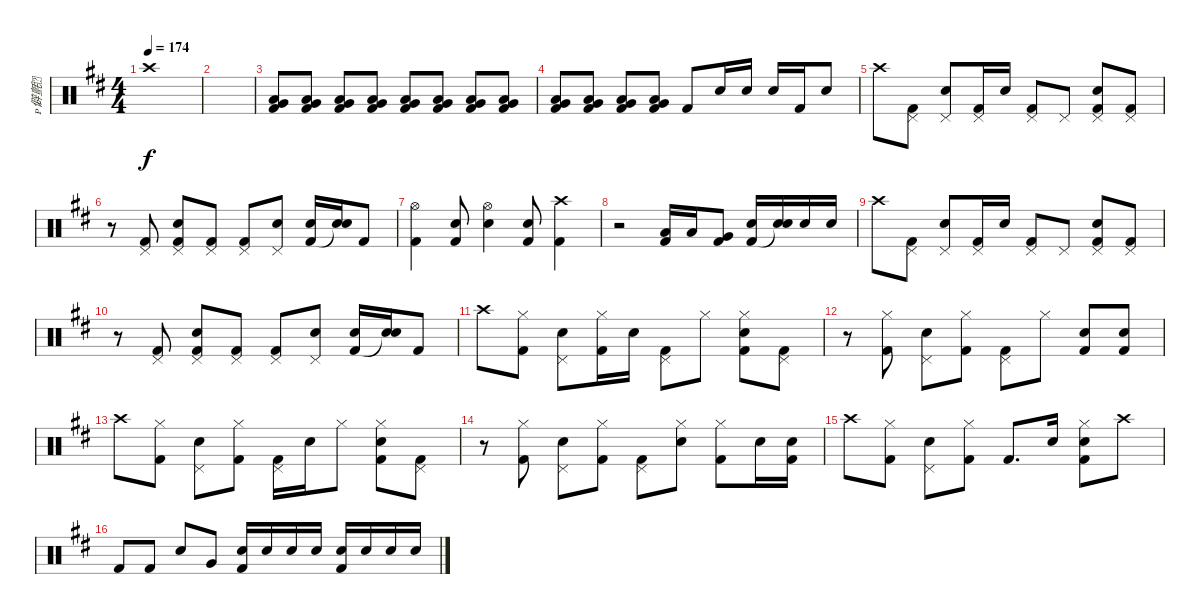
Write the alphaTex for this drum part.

\track ("僻氈" "僻氈") {instrument percussion}
\staff {score}
\articulation defaults
\ts (4 4)
\tempo 174
\clef neutral
\ks d "Crash high (hit)".1{dy f}
|
|
("Low Tom (hit)" "Very Low Tom (hit)" "Kick (hit) 2").8{volume 7} ("Low Tom (hit)" "Very Low Tom (hit)" "Kick (hit) 2").8 ("Low Tom (hit)" "Very Low Tom (hit)" "Kick (hit) 2").8{volume 10} ("Low Tom (hit)" "Very Low Tom (hit)" "Kick (hit) 2").8 ("Low Tom (hit)" "Very Low Tom (hit)" "Kick (hit) 2").8{volume 12} ("Low Tom (hit)" "Very Low Tom (hit)" "Kick (hit) 2").8 ("Low Tom (hit)" "Very Low Tom (hit)" "Kick (hit) 2").8{volume 14} ("Low Tom (hit)" "Very Low Tom (hit)" "Kick (hit) 2").8 |
("Low Tom (hit)" "Very Low Tom (hit)" "Kick (hit) 2").8{volume 16} ("Low Tom (hit)" "Very Low Tom (hit)" "Kick (hit) 2").8 ("Low Tom (hit)" "Very Low Tom (hit)" "Kick (hit) 2").8 ("Low Tom (hit)" "Very Low Tom (hit)" "Kick (hit) 2").8 "Kick (hit) 2".8 "Electric Snare (hit)".16 "Electric Snare (hit)".16 "Electric Snare (hit)".16 "Kick (hit) 2".16 "Electric Snare (hit)".8 |
"Crash high (hit)".8 ("Pedal Hi-Hat (hit)" "Kick (hit) 2").8 ("Pedal Hi-Hat (hit)" "Electric Snare (hit)").8 ("Pedal Hi-Hat (hit)" "Kick (hit) 2").16 "Electric Snare (hit)".16 ("Pedal Hi-Hat (hit)" "Kick (hit) 2").8 "Pedal Hi-Hat (hit)".8 ("Pedal Hi-Hat (hit)" "Electric Snare (hit)" "Kick (hit) 2").8 ("Pedal Hi-Hat (hit)" "Kick (hit) 2").8 |
r.8 ("Pedal Hi-Hat (hit)" "Kick (hit) 2").8 ("Pedal Hi-Hat (hit)" "Electric Snare (hit)" "Kick (hit) 2").8 ("Pedal Hi-Hat (hit)" "Kick (hit) 2").8 ("Pedal Hi-Hat (hit)" "Kick (hit) 2").8 ("Pedal Hi-Hat (hit)" "Electric Snare (hit)").8 ("Electric Snare (hit)" "Kick (hit) 2").16 ("Electric Snare (hit)" "Snare (hit)"{t}).16 "Kick (hit) 2".8 |
("Hi-Hat (open)" "Kick (hit) 2").4 ("Electric Snare (hit)" "Kick (hit) 2").8 ("Hi-Hat (open)" "Electric Snare (hit)").4 ("Electric Snare (hit)" "Kick (hit) 2").8 ("Crash high (hit)" "Kick (hit) 2").4 |
r.2 ("Low Tom (hit)" "Kick (hit) 2").16 "Low Tom (hit)".16 ("Very Low Tom (hit)" "Kick (hit) 2").8 ("Electric Snare (hit)" "Kick (hit) 2").16 ("Electric Snare (hit)" "Snare (hit)"{t}).16 "Electric Snare (hit)".16 "Electric Snare (hit)".16 |
"Crash high (hit)".8 ("Pedal Hi-Hat (hit)" "Kick (hit) 2").8 ("Pedal Hi-Hat (hit)" "Electric Snare (hit)").8 ("Pedal Hi-Hat (hit)" "Kick (hit) 2").16 "Electric Snare (hit)".16 ("Pedal Hi-Hat (hit)" "Kick (hit) 2").8 "Pedal Hi-Hat (hit)".8 ("Pedal Hi-Hat (hit)" "Electric Snare (hit)" "Kick (hit) 2").8 ("Pedal Hi-Hat (hit)" "Kick (hit) 2").8 |
r.8 ("Pedal Hi-Hat (hit)" "Kick (hit) 2").8 ("Pedal Hi-Hat (hit)" "Electric Snare (hit)" "Kick (hit) 2").8 ("Pedal Hi-Hat (hit)" "Kick (hit) 2").8 ("Pedal Hi-Hat (hit)" "Kick (hit) 2").8 ("Pedal Hi-Hat (hit)" "Electric Snare (hit)").8 ("Electric Snare (hit)" "Kick (hit) 2").16 ("Electric Snare (hit)" "Snare (hit)"{t}).16 "Kick (hit) 2".8 |
"Crash high (hit)".8 ("Hi-Hat (closed)" "Kick (hit) 2").8 ("Pedal Hi-Hat (hit)" "Electric Snare (hit)").8 ("Hi-Hat (closed)" "Kick (hit) 2").16 "Electric Snare (hit)".16 ("Pedal Hi-Hat (hit)" "Kick (hit) 2").8 "Hi-Hat (closed)".8 ("Hi-Hat (closed)" "Electric Snare (hit)" "Kick (hit) 2").8 ("Pedal Hi-Hat (hit)" "Kick (hit) 2").8 |
r.8 ("Hi-Hat (closed)" "Kick (hit) 2").8 ("Pedal Hi-Hat (hit)" "Electric Snare (hit)").8 ("Hi-Hat (closed)" "Kick (hit) 2").8 ("Pedal Hi-Hat (hit)" "Kick (hit) 2").8 "Hi-Hat (closed)".8 ("Electric Snare (hit)" "Kick (hit) 2").8 ("Electric Snare (hit)" "Kick (hit) 2").8 |
"Crash high (hit)".8 ("Hi-Hat (closed)" "Kick (hit) 2").8 ("Pedal Hi-Hat (hit)" "Electric Snare (hit)").8 ("Hi-Hat (closed)" "Kick (hit) 2").8 ("Pedal Hi-Hat (hit)" "Kick (hit) 2").16 "Electric Snare (hit)".16 "Hi-Hat (closed)".8 ("Hi-Hat (closed)" "Electric Snare (hit)" "Kick (hit) 2").8 ("Pedal Hi-Hat (hit)" "Kick (hit) 2").8 |
r.8 ("Hi-Hat (closed)" "Kick (hit) 2").8 ("Pedal Hi-Hat (hit)" "Electric Snare (hit)").8 ("Hi-Hat (closed)" "Kick (hit) 2").8 ("Pedal Hi-Hat (hit)" "Kick (hit) 2").8 ("Hi-Hat (closed)" "Electric Snare (hit)").8 ("Hi-Hat (closed)" "Kick (hit) 2").8 "Electric Snare (hit)".16 ("Electric Snare (hit)" "Kick (hit) 2").16 |
"Crash high (hit)".8 ("Hi-Hat (closed)" "Kick (hit) 2").8 ("Pedal Hi-Hat (hit)" "Electric Snare (hit)").8 ("Hi-Hat (closed)" "Kick (hit) 2").8 "Kick (hit) 2".8{d} "Electric Snare (hit)".16 ("Hi-Hat (closed)" "Electric Snare (hit)" "Kick (hit) 2").8 "Crash high (hit)".8 |
"Kick (hit) 2".8 "Kick (hit) 2".8 "Electric Snare (hit)".8 "Very Low Tom (hit)".8 ("Electric Snare (hit)" "Kick (hit) 2").16 "Electric Snare (hit)".16 "Electric Snare (hit)".16 "Electric Snare (hit)".16 ("Electric Snare (hit)" "Kick (hit) 2").16 "Electric Snare (hit)".16 "Electric Snare (hit)".16 "Electric Snare (hit)".16
